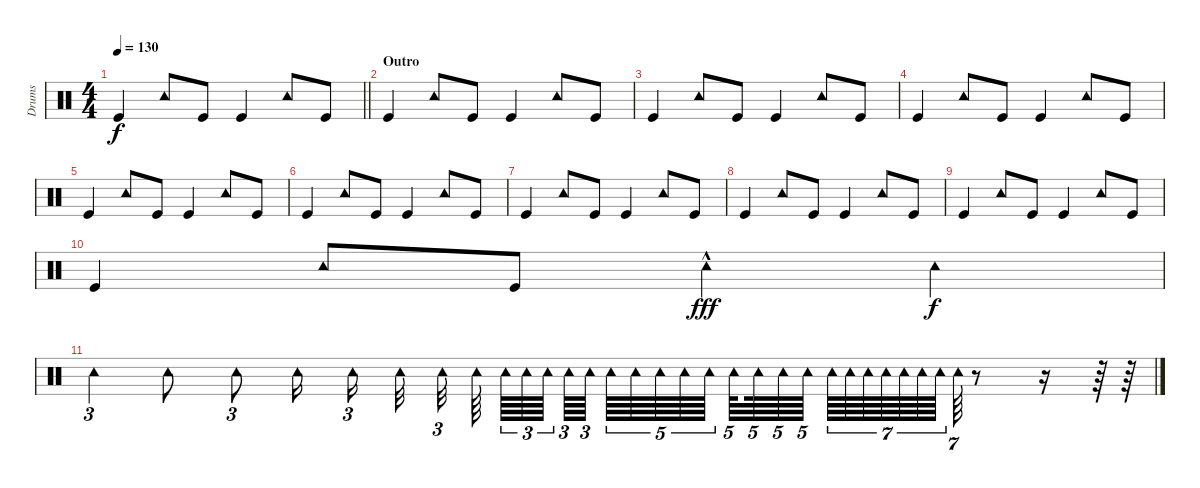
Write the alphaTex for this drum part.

\track ("Drums" "Drums") {instrument percussion}
\staff {score}
\articulation defaults
\ts (4 4)
\tempo 130
\clef neutral
\barLineRight lightlight
\ks c "Kick (hit)".4{dy f} "Tambourine (hit)".8 "Kick (hit)".8 "Kick (hit)".4 "Tambourine (hit)".8 "Kick (hit)".8
|
\section ("" "Outro")
"Kick (hit)".4 "Tambourine (hit)".8 "Kick (hit)".8 "Kick (hit)".4 "Tambourine (hit)".8 "Kick (hit)".8 |
"Kick (hit)".4 "Tambourine (hit)".8 "Kick (hit)".8 "Kick (hit)".4 "Tambourine (hit)".8 "Kick (hit)".8 |
"Kick (hit)".4 "Tambourine (hit)".8 "Kick (hit)".8 "Kick (hit)".4 "Tambourine (hit)".8 "Kick (hit)".8 |
"Kick (hit)".4 "Tambourine (hit)".8 "Kick (hit)".8 "Kick (hit)".4 "Tambourine (hit)".8 "Kick (hit)".8 |
"Kick (hit)".4 "Tambourine (hit)".8 "Kick (hit)".8 "Kick (hit)".4 "Tambourine (hit)".8 "Kick (hit)".8 |
"Kick (hit)".4 "Tambourine (hit)".8 "Kick (hit)".8 "Kick (hit)".4 "Tambourine (hit)".8 "Kick (hit)".8 |
"Kick (hit)".4 "Tambourine (hit)".8 "Kick (hit)".8 "Kick (hit)".4 "Tambourine (hit)".8 "Kick (hit)".8 |
"Kick (hit)".4 "Tambourine (hit)".8 "Kick (hit)".8 "Kick (hit)".4 "Tambourine (hit)".8 "Kick (hit)".8 |
"Kick (hit)".4 "Tambourine (hit)".8 "Kick (hit)".8 "Tambourine (hit)"{hac}.4{dy fff} "Tambourine (hit)".4{dy f} |
"Tambourine (hit)".4{tu (3 2)} "Tambourine (hit)".8 "Tambourine (hit)".8{tu (3 2)} "Tambourine (hit)".16{beam splitsecondary} "Tambourine (hit)".16{tu (3 2)} "Tambourine (hit)".32 "Tambourine (hit)".32{tu (3 2) beam splitsecondary} "Tambourine (hit)".64{beam splitsecondary} "Tambourine (hit)".64{tu (3 2)} "Tambourine (hit)".64{tu (3 2)} "Tambourine (hit)".64{tu (3 2) beam splitsecondary} "Tambourine (hit)".64{tu (3 2)} "Tambourine (hit)".64{tu (3 2)} "Tambourine (hit)".64{tu (5 4)} "Tambourine (hit)".64{tu (5 4)} "Tambourine (hit)".64{tu (5 4)} "Tambourine (hit)".64{tu (5 4)} "Tambourine (hit)".64{tu (5 4)} "Tambourine (hit)".64{tu (5 4) beam splitsecondary} "Tambourine (hit)".64{tu (5 4)} "Tambourine (hit)".64{tu (5 4)} "Tambourine (hit)".64{tu (5 4)} "Tambourine (hit)".64{tu (7 4)} "Tambourine (hit)".64{tu (7 4)} "Tambourine (hit)".64{tu (7 4)} "Tambourine (hit)".64{tu (7 4)} "Tambourine (hit)".64{tu (7 4)} "Tambourine (hit)".64{tu (7 4)} "Tambourine (hit)".64{tu (7 4)} "Tambourine (hit)".64{tu (7 4)} r.8 r.16 r.64 r.64{tu (9 8)}
